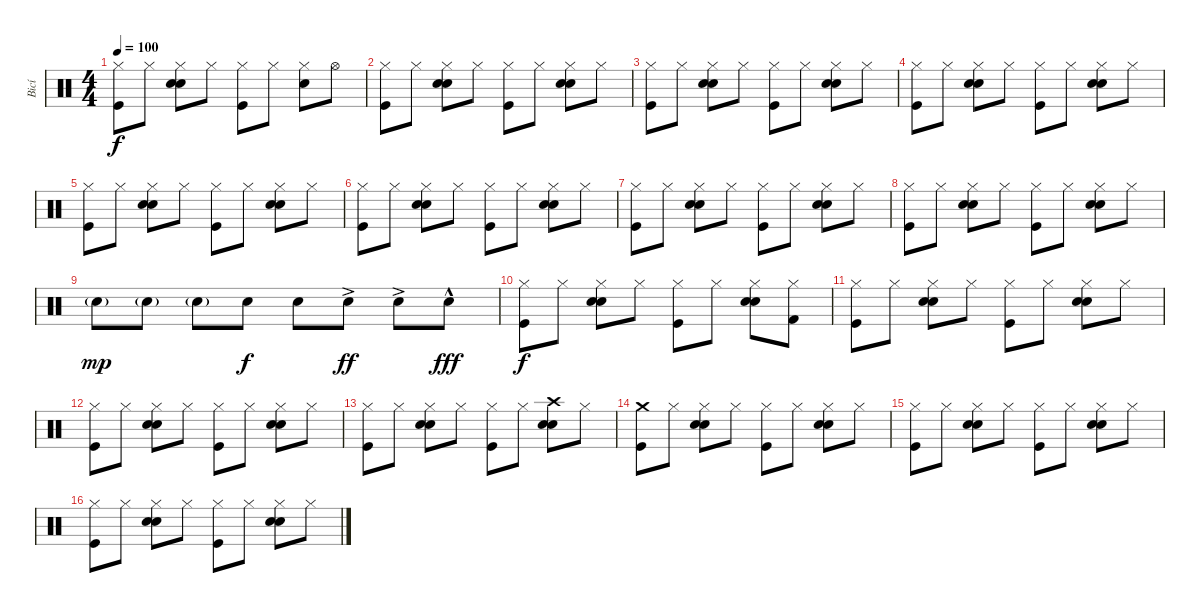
\track ("Bicí" "Bicí") {instrument percussion}
\staff {score}
\articulation defaults
\ts (4 4)
\tempo 100
\clef neutral
\ks c
("Hi-Hat (closed)" "Kick (hit)").8{dy f} "Hi-Hat (closed)".8 ("Hi-Hat (closed)" "Hand Clap (hit)" "Electric Snare (hit)").8 "Hi-Hat (closed)".8 ("Hi-Hat (closed)" "Kick (hit)").8 "Hi-Hat (closed)".8 ("Hi-Hat (closed)" "Electric Snare (hit)").8 "Hi-Hat (open)".8 |
("Hi-Hat (closed)" "Kick (hit)").8 "Hi-Hat (closed)".8 ("Hi-Hat (closed)" "Hand Clap (hit)" "Electric Snare (hit)").8 "Hi-Hat (closed)".8 ("Hi-Hat (closed)" "Kick (hit)").8 "Hi-Hat (closed)".8 ("Hi-Hat (closed)" "Hand Clap (hit)" "Electric Snare (hit)").8 "Hi-Hat (closed)".8 |
("Hi-Hat (closed)" "Kick (hit)").8 "Hi-Hat (closed)".8 ("Hi-Hat (closed)" "Hand Clap (hit)" "Electric Snare (hit)").8 "Hi-Hat (closed)".8 ("Hi-Hat (closed)" "Kick (hit)").8 "Hi-Hat (closed)".8 ("Hi-Hat (closed)" "Hand Clap (hit)" "Electric Snare (hit)").8 "Hi-Hat (closed)".8 |
("Hi-Hat (closed)" "Kick (hit)").8 "Hi-Hat (closed)".8 ("Hi-Hat (closed)" "Hand Clap (hit)" "Electric Snare (hit)").8 "Hi-Hat (closed)".8 ("Hi-Hat (closed)" "Kick (hit)").8 "Hi-Hat (closed)".8 ("Hi-Hat (closed)" "Hand Clap (hit)" "Electric Snare (hit)").8 "Hi-Hat (closed)".8 |
("Hi-Hat (closed)" "Kick (hit)").8 "Hi-Hat (closed)".8 ("Hi-Hat (closed)" "Hand Clap (hit)" "Electric Snare (hit)").8 "Hi-Hat (closed)".8 ("Hi-Hat (closed)" "Kick (hit)").8 "Hi-Hat (closed)".8 ("Hi-Hat (closed)" "Hand Clap (hit)" "Electric Snare (hit)").8 "Hi-Hat (closed)".8 |
("Hi-Hat (closed)" "Kick (hit)").8 "Hi-Hat (closed)".8 ("Hi-Hat (closed)" "Hand Clap (hit)" "Electric Snare (hit)").8 "Hi-Hat (closed)".8 ("Hi-Hat (closed)" "Kick (hit)").8 "Hi-Hat (closed)".8 ("Hi-Hat (closed)" "Hand Clap (hit)" "Electric Snare (hit)").8 "Hi-Hat (closed)".8 |
("Hi-Hat (closed)" "Kick (hit)").8 "Hi-Hat (closed)".8 ("Hi-Hat (closed)" "Hand Clap (hit)" "Electric Snare (hit)").8 "Hi-Hat (closed)".8 ("Hi-Hat (closed)" "Kick (hit)").8 "Hi-Hat (closed)".8 ("Hi-Hat (closed)" "Hand Clap (hit)" "Electric Snare (hit)").8 "Hi-Hat (closed)".8 |
("Hi-Hat (closed)" "Kick (hit)").8 "Hi-Hat (closed)".8 ("Hi-Hat (closed)" "Hand Clap (hit)" "Electric Snare (hit)").8 "Hi-Hat (closed)".8 ("Hi-Hat (closed)" "Kick (hit)").8 "Hi-Hat (closed)".8 ("Hi-Hat (closed)" "Hand Clap (hit)" "Electric Snare (hit)").8 "Hi-Hat (closed)".8 |
"Electric Snare (hit)"{g}.8{dy mp} "Electric Snare (hit)"{g}.8 "Electric Snare (hit)"{g}.8 "Electric Snare (hit)".8{dy f} "Electric Snare (hit)".8 "Electric Snare (hit)"{ac}.8{dy ff} "Electric Snare (hit)"{ac}.8 "Electric Snare (hit)"{hac}.8{dy fff} |
("Hi-Hat (closed)" "Kick (hit)").8{dy f} "Hi-Hat (closed)".8 ("Hi-Hat (closed)" "Hand Clap (hit)" "Electric Snare (hit)").8 "Hi-Hat (closed)".8 ("Hi-Hat (closed)" "Kick (hit)").8 "Hi-Hat (closed)".8 ("Hi-Hat (closed)" "Hand Clap (hit)" "Electric Snare (hit)").8 ("Hi-Hat (closed)" "Kick (hit) 2").8 |
("Hi-Hat (closed)" "Kick (hit)").8 "Hi-Hat (closed)".8 ("Hi-Hat (closed)" "Hand Clap (hit)" "Electric Snare (hit)").8 "Hi-Hat (closed)".8 ("Hi-Hat (closed)" "Kick (hit)").8 "Hi-Hat (closed)".8 ("Hi-Hat (closed)" "Hand Clap (hit)" "Electric Snare (hit)").8 "Hi-Hat (closed)".8 |
("Hi-Hat (closed)" "Kick (hit)").8 "Hi-Hat (closed)".8 ("Hi-Hat (closed)" "Hand Clap (hit)" "Electric Snare (hit)").8 "Hi-Hat (closed)".8 ("Hi-Hat (closed)" "Kick (hit)").8 "Hi-Hat (closed)".8 ("Hi-Hat (closed)" "Hand Clap (hit)" "Electric Snare (hit)").8 "Hi-Hat (closed)".8 |
("Hi-Hat (closed)" "Kick (hit)").8 "Hi-Hat (closed)".8 ("Hi-Hat (closed)" "Hand Clap (hit)" "Electric Snare (hit)").8 "Hi-Hat (closed)".8 ("Hi-Hat (closed)" "Kick (hit)").8 "Hi-Hat (closed)".8 ("Crash high (hit)" "Hand Clap (hit)" "Electric Snare (hit)").8 "Hi-Hat (closed)".8 |
("Crash medium (hit)" "Kick (hit)").8 "Hi-Hat (closed)".8 ("Hi-Hat (closed)" "Hand Clap (hit)" "Electric Snare (hit)").8 "Hi-Hat (closed)".8 ("Hi-Hat (closed)" "Kick (hit)").8 "Hi-Hat (closed)".8 ("Hi-Hat (closed)" "Hand Clap (hit)" "Electric Snare (hit)").8 "Hi-Hat (closed)".8 |
("Hi-Hat (closed)" "Kick (hit)").8 "Hi-Hat (closed)".8 ("Hi-Hat (closed)" "Hand Clap (hit)" "Electric Snare (hit)").8 "Hi-Hat (closed)".8 ("Hi-Hat (closed)" "Kick (hit)").8 "Hi-Hat (closed)".8 ("Hi-Hat (closed)" "Hand Clap (hit)" "Electric Snare (hit)").8 "Hi-Hat (closed)".8 |
("Hi-Hat (closed)" "Kick (hit)").8 "Hi-Hat (closed)".8 ("Hi-Hat (closed)" "Hand Clap (hit)" "Electric Snare (hit)").8 "Hi-Hat (closed)".8 ("Hi-Hat (closed)" "Kick (hit)").8 "Hi-Hat (closed)".8 ("Hi-Hat (closed)" "Hand Clap (hit)" "Electric Snare (hit)").8 "Hi-Hat (closed)".8
